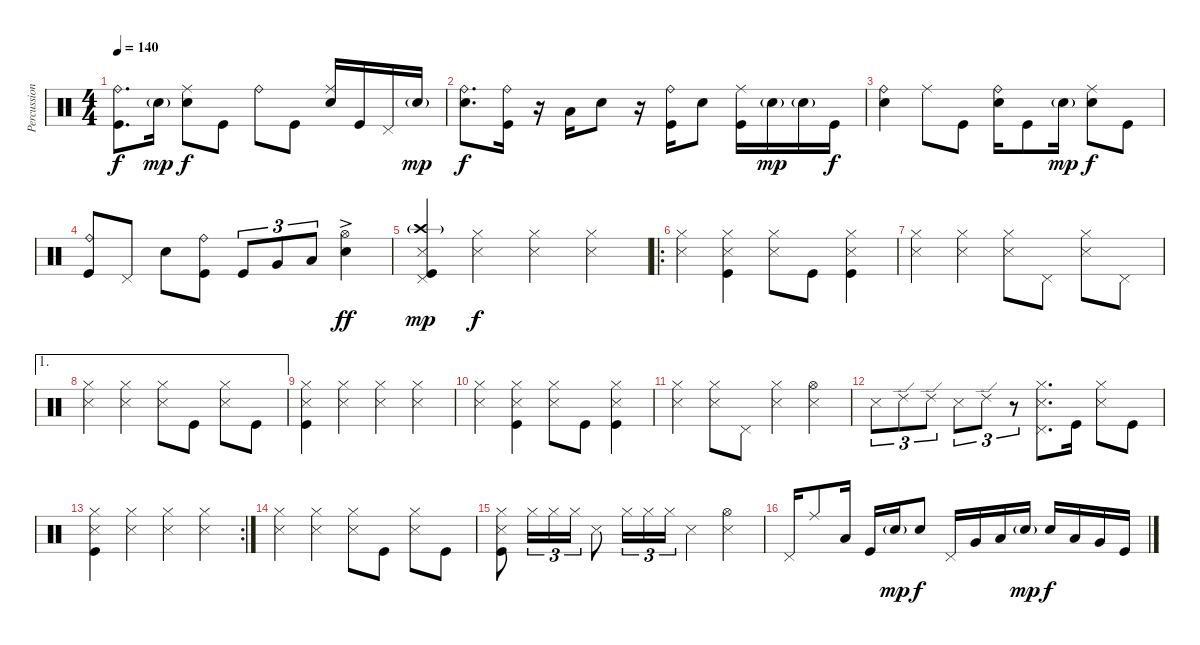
\track ("Percussion" "Percussion") {instrument percussion}
\staff {score}
\articulation defaults
\ts (4 4)
\tempo 140
\clef neutral
\ks c
("Ride (bell)" "Kick (hit)").8{d dy f} "Electric Snare (hit)"{g}.16{dy mp} ("Ride (middle)" "Electric Snare (hit)").8{dy f} "Kick (hit)".8 "Ride (bell)".8 "Kick (hit)".8 ("Ride (middle)" "Electric Snare (hit)").16 "Kick (hit)".16 "Pedal Hi-Hat (hit)".16 "Electric Snare (hit)"{g}.16{dy mp} |
("Ride (bell)" "Electric Snare (hit)").8{d dy f} ("Ride (bell)" "Kick (hit)").16 r.16 "Low Tom (hit)".16 "Electric Snare (hit)".8 r.16 ("Ride (bell)" "Kick (hit)").16 "Electric Snare (hit)".8 ("Ride (middle)" "Kick (hit)").16 "Electric Snare (hit)"{g}.16{dy mp} "Electric Snare (hit)"{g}.16 "Kick (hit)".16{dy f} |
("Ride (bell)" "Electric Snare (hit)").4 "Ride (middle)".8 "Kick (hit)".8 ("Ride (bell)" "Electric Snare (hit)").16 "Kick (hit)".8 "Electric Snare (hit)"{g}.16{dy mp} ("Ride (middle)" "Electric Snare (hit)").8{dy f} "Kick (hit)".8 |
("Ride (bell)" "Kick (hit)").8 "Pedal Hi-Hat (hit)".8 "Electric Snare (hit)".8 ("Ride (bell)" "Kick (hit)").8 "Kick (hit)".8{tu (3 2)} "Very Low Tom (hit)".8{tu (3 2)} "Low Tom (hit)".8{tu (3 2)} ("Hi-Hat (open)"{ac} "Electric Snare (hit)").4{dy ff} |
("Crash high (hit)"{g} "Snare (side stick) 3" "Kick (hit)" "Pedal Hi-Hat (hit)").4{dy mp} ("Hi-Hat (closed)" "Snare (side stick) 3").4{dy f} ("Hi-Hat (closed)" "Snare (side stick) 3").4 ("Hi-Hat (closed)" "Snare (side stick) 3").4 |
\ro
("Hi-Hat (closed)" "Snare (side stick) 3").4 ("Hi-Hat (closed)" "Snare (side stick) 3" "Kick (hit)").4 ("Hi-Hat (closed)" "Snare (side stick) 3").8 "Kick (hit)".8 ("Hi-Hat (closed)" "Snare (side stick) 3" "Kick (hit)").4 |
("Hi-Hat (closed)" "Snare (side stick) 3").4 ("Hi-Hat (closed)" "Snare (side stick) 3").4 ("Hi-Hat (closed)" "Snare (side stick) 3").8 "Pedal Hi-Hat (hit)".8 ("Hi-Hat (closed)" "Snare (side stick) 3").8 "Pedal Hi-Hat (hit)".8 |
\ae 1
("Hi-Hat (closed)" "Snare (side stick) 3").4 ("Hi-Hat (closed)" "Snare (side stick) 3").4 ("Hi-Hat (closed)" "Snare (side stick) 3").8 "Kick (hit)".8 ("Hi-Hat (closed)" "Snare (side stick) 3").8 "Kick (hit)".8 |
("Hi-Hat (closed)" "Snare (side stick) 3" "Kick (hit)").4 ("Hi-Hat (closed)" "Snare (side stick) 3").4 ("Hi-Hat (closed)" "Snare (side stick) 3").4 ("Hi-Hat (closed)" "Snare (side stick) 3").4 |
("Hi-Hat (closed)" "Snare (side stick) 3").4 ("Hi-Hat (closed)" "Snare (side stick) 3" "Kick (hit)").4 ("Hi-Hat (closed)" "Snare (side stick) 3").8 "Kick (hit)".8 ("Hi-Hat (closed)" "Snare (side stick) 3" "Kick (hit)").4 |
("Hi-Hat (closed)" "Snare (side stick) 3").4 ("Hi-Hat (closed)" "Snare (side stick) 3").8 "Pedal Hi-Hat (hit)".8 ("Hi-Hat (closed)" "Snare (side stick) 3").4 ("Hi-Hat (open)" "Snare (side stick) 3").4 |
"Snare (side stick) 3".8{tu (3 2)} "Ride (edge) 2".8{tu (3 2)} "Ride (edge) 2".8{tu (3 2)} "Snare (side stick) 3".8{tu (3 2)} "Ride (edge) 2".8{tu (3 2)} r.8{tu (3 2)} ("Hi-Hat (closed)" "Snare (side stick) 3" "Pedal Hi-Hat (hit)").8{d} "Kick (hit)".16 ("Hi-Hat (closed)" "Snare (side stick) 3").8 "Kick (hit)".8 |
\rc 2
("Hi-Hat (closed)" "Snare (side stick) 3" "Kick (hit)").4 ("Hi-Hat (closed)" "Snare (side stick) 3").4 ("Hi-Hat (closed)" "Snare (side stick) 3").4 ("Hi-Hat (closed)" "Snare (side stick) 3").4 |
("Hi-Hat (closed)" "Snare (side stick) 3").4 ("Hi-Hat (closed)" "Snare (side stick) 3").4 ("Hi-Hat (closed)" "Snare (side stick) 3").8 "Kick (hit)".8 ("Hi-Hat (closed)" "Snare (side stick) 3").8 "Kick (hit)".8 |
("Hi-Hat (closed)" "Snare (side stick) 3" "Kick (hit)").8 "Hi-Hat (closed)".16{tu (3 2)} "Hi-Hat (closed)".16{tu (3 2)} "Hi-Hat (closed)".16{tu (3 2)} "Snare (side stick) 3".8 "Hi-Hat (closed)".16{tu (3 2)} "Hi-Hat (closed)".16{tu (3 2)} "Hi-Hat (closed)".16{tu (3 2)} "Snare (side stick) 3".4 ("Hi-Hat (open)" "Snare (side stick) 3").4 |
"Pedal Hi-Hat (hit)".16 "Ride (middle)".8 "Low Tom (hit)".16 "Kick (hit)".16 "Electric Snare (hit)"{g}.16{dy mp} "Electric Snare (hit)".8{dy f} "Pedal Hi-Hat (hit)".16 "Very Low Tom (hit)".16 "Low Tom (hit)".16 "Electric Snare (hit)"{g}.16{dy mp} "Electric Snare (hit)".16{dy f} "Low Tom (hit)".16 "Very Low Tom (hit)".16 "Kick (hit)".16
